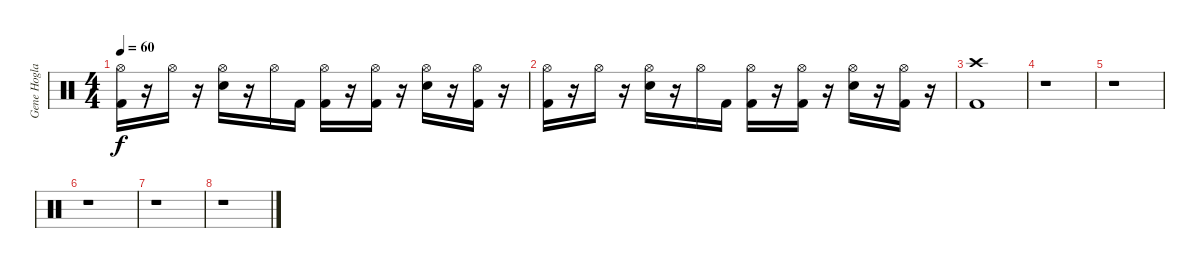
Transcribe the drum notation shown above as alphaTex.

\track ("Gene Hoglan" "Gene Hogla") {instrument percussion}
\staff {score}
\articulation defaults
\ts (4 4)
\tempo 60
\clef neutral
\ks c
("Hi-Hat (open)" "Kick (hit) 2").16{dy f} r.16 "Hi-Hat (open)".16 r.16 ("Hi-Hat (open)" "Snare (hit) 2").16 r.16 "Hi-Hat (open)".16 "Kick (hit) 2".16 ("Hi-Hat (open)" "Kick (hit) 2").16 r.16 ("Hi-Hat (open)" "Kick (hit) 2").16 r.16 ("Hi-Hat (open)" "Snare (hit) 2").16 r.16 ("Hi-Hat (open)" "Kick (hit) 2").16 r.16 |
("Hi-Hat (open)" "Kick (hit) 2").16 r.16 "Hi-Hat (open)".16 r.16 ("Hi-Hat (open)" "Snare (hit) 2").16 r.16 "Hi-Hat (open)".16 "Kick (hit) 2".16 ("Hi-Hat (open)" "Kick (hit) 2").16 r.16 ("Hi-Hat (open)" "Kick (hit) 2").16 r.16 ("Hi-Hat (open)" "Snare (hit) 2").16 r.16 ("Hi-Hat (open)" "Kick (hit) 2").16 r.16 |
("Crash high (hit)" "Kick (hit) 2").1 |
r.1 |
r.1 |
r.1 |
r.1 |
r.1
